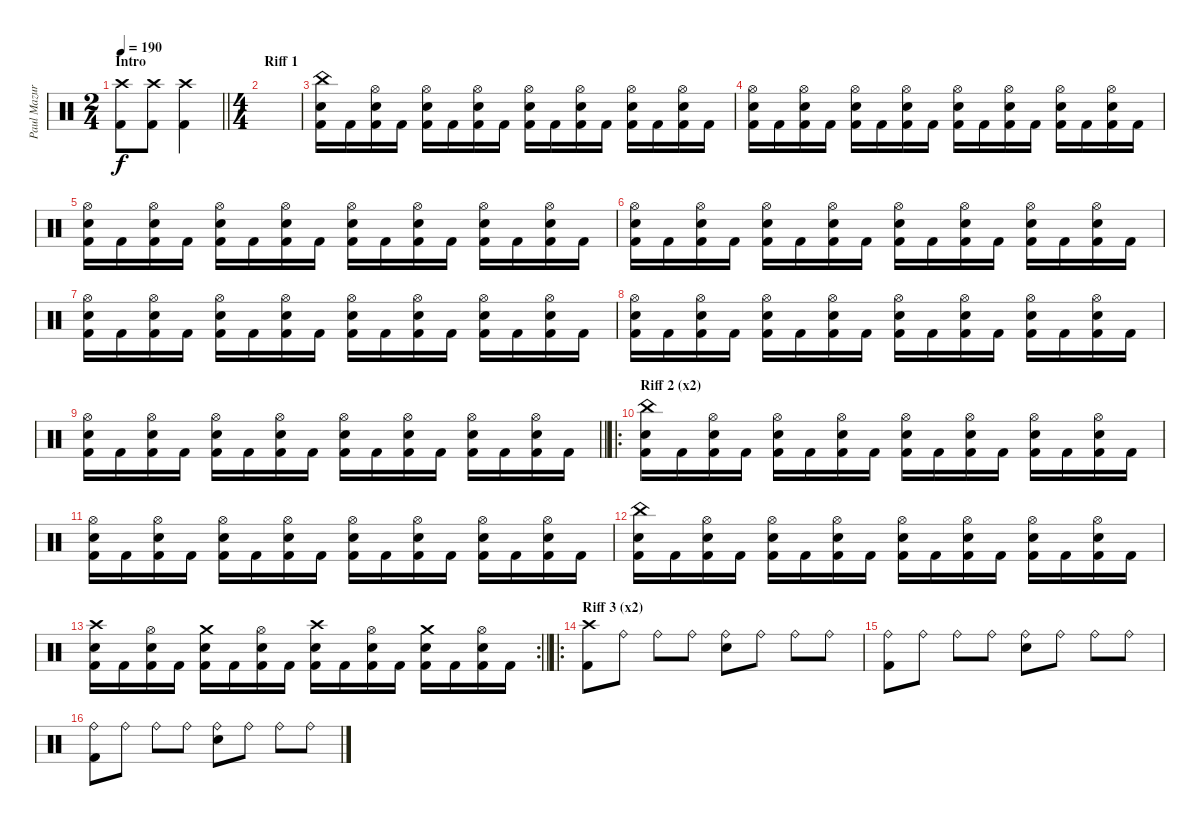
\track ("Paul Mazurkiewicz" "Paul Mazur") {instrument percussion}
\staff {score}
\articulation defaults
\ts (2 4)
\section ("" "Intro")
\tempo 190
\clef neutral
\barLineRight lightlight
\ks c
("Crash high (hit)" "Kick (hit) 2").8{dy f} ("Crash high (hit)" "Kick (hit) 2").8 ("Crash high (hit)" "Kick (hit) 2").4 |
\ts (4 4)
\section ("" "Riff 1")
|
("China (hit)" "Electric Snare (hit)" "Kick (hit) 2").16 "Kick (hit) 2".16 ("Hi-Hat (open)" "Electric Snare (hit)" "Kick (hit) 2").16 "Kick (hit) 2".16 ("Hi-Hat (open)" "Electric Snare (hit)" "Kick (hit) 2").16 "Kick (hit) 2".16 ("Hi-Hat (open)" "Electric Snare (hit)" "Kick (hit) 2").16 "Kick (hit) 2".16 ("Hi-Hat (open)" "Electric Snare (hit)" "Kick (hit) 2").16 "Kick (hit) 2".16 ("Hi-Hat (open)" "Electric Snare (hit)" "Kick (hit) 2").16 "Kick (hit) 2".16 ("Hi-Hat (open)" "Electric Snare (hit)" "Kick (hit) 2").16 "Kick (hit) 2".16 ("Hi-Hat (open)" "Electric Snare (hit)" "Kick (hit) 2").16 "Kick (hit) 2".16 |
("Hi-Hat (open)" "Electric Snare (hit)" "Kick (hit) 2").16 "Kick (hit) 2".16 ("Hi-Hat (open)" "Electric Snare (hit)" "Kick (hit) 2").16 "Kick (hit) 2".16 ("Hi-Hat (open)" "Electric Snare (hit)" "Kick (hit) 2").16 "Kick (hit) 2".16 ("Hi-Hat (open)" "Electric Snare (hit)" "Kick (hit) 2").16 "Kick (hit) 2".16 ("Hi-Hat (open)" "Electric Snare (hit)" "Kick (hit) 2").16 "Kick (hit) 2".16 ("Hi-Hat (open)" "Electric Snare (hit)" "Kick (hit) 2").16 "Kick (hit) 2".16 ("Hi-Hat (open)" "Electric Snare (hit)" "Kick (hit) 2").16 "Kick (hit) 2".16 ("Hi-Hat (open)" "Electric Snare (hit)" "Kick (hit) 2").16 "Kick (hit) 2".16 |
("Hi-Hat (open)" "Electric Snare (hit)" "Kick (hit) 2").16 "Kick (hit) 2".16 ("Hi-Hat (open)" "Electric Snare (hit)" "Kick (hit) 2").16 "Kick (hit) 2".16 ("Hi-Hat (open)" "Electric Snare (hit)" "Kick (hit) 2").16 "Kick (hit) 2".16 ("Hi-Hat (open)" "Electric Snare (hit)" "Kick (hit) 2").16 "Kick (hit) 2".16 ("Hi-Hat (open)" "Electric Snare (hit)" "Kick (hit) 2").16 "Kick (hit) 2".16 ("Hi-Hat (open)" "Electric Snare (hit)" "Kick (hit) 2").16 "Kick (hit) 2".16 ("Hi-Hat (open)" "Electric Snare (hit)" "Kick (hit) 2").16 "Kick (hit) 2".16 ("Hi-Hat (open)" "Electric Snare (hit)" "Kick (hit) 2").16 "Kick (hit) 2".16 |
("Hi-Hat (open)" "Electric Snare (hit)" "Kick (hit) 2").16 "Kick (hit) 2".16 ("Hi-Hat (open)" "Electric Snare (hit)" "Kick (hit) 2").16 "Kick (hit) 2".16 ("Hi-Hat (open)" "Electric Snare (hit)" "Kick (hit) 2").16 "Kick (hit) 2".16 ("Hi-Hat (open)" "Electric Snare (hit)" "Kick (hit) 2").16 "Kick (hit) 2".16 ("Hi-Hat (open)" "Electric Snare (hit)" "Kick (hit) 2").16 "Kick (hit) 2".16 ("Hi-Hat (open)" "Electric Snare (hit)" "Kick (hit) 2").16 "Kick (hit) 2".16 ("Hi-Hat (open)" "Electric Snare (hit)" "Kick (hit) 2").16 "Kick (hit) 2".16 ("Hi-Hat (open)" "Electric Snare (hit)" "Kick (hit) 2").16 "Kick (hit) 2".16 |
("Hi-Hat (open)" "Electric Snare (hit)" "Kick (hit) 2").16 "Kick (hit) 2".16 ("Hi-Hat (open)" "Electric Snare (hit)" "Kick (hit) 2").16 "Kick (hit) 2".16 ("Hi-Hat (open)" "Electric Snare (hit)" "Kick (hit) 2").16 "Kick (hit) 2".16 ("Hi-Hat (open)" "Electric Snare (hit)" "Kick (hit) 2").16 "Kick (hit) 2".16 ("Hi-Hat (open)" "Electric Snare (hit)" "Kick (hit) 2").16 "Kick (hit) 2".16 ("Hi-Hat (open)" "Electric Snare (hit)" "Kick (hit) 2").16 "Kick (hit) 2".16 ("Hi-Hat (open)" "Electric Snare (hit)" "Kick (hit) 2").16 "Kick (hit) 2".16 ("Hi-Hat (open)" "Electric Snare (hit)" "Kick (hit) 2").16 "Kick (hit) 2".16 |
("Hi-Hat (open)" "Electric Snare (hit)" "Kick (hit) 2").16 "Kick (hit) 2".16 ("Hi-Hat (open)" "Electric Snare (hit)" "Kick (hit) 2").16 "Kick (hit) 2".16 ("Hi-Hat (open)" "Electric Snare (hit)" "Kick (hit) 2").16 "Kick (hit) 2".16 ("Hi-Hat (open)" "Electric Snare (hit)" "Kick (hit) 2").16 "Kick (hit) 2".16 ("Hi-Hat (open)" "Electric Snare (hit)" "Kick (hit) 2").16 "Kick (hit) 2".16 ("Hi-Hat (open)" "Electric Snare (hit)" "Kick (hit) 2").16 "Kick (hit) 2".16 ("Hi-Hat (open)" "Electric Snare (hit)" "Kick (hit) 2").16 "Kick (hit) 2".16 ("Hi-Hat (open)" "Electric Snare (hit)" "Kick (hit) 2").16 "Kick (hit) 2".16 |
\barLineRight lightlight
("Hi-Hat (open)" "Electric Snare (hit)" "Kick (hit) 2").16 "Kick (hit) 2".16 ("Hi-Hat (open)" "Electric Snare (hit)" "Kick (hit) 2").16 "Kick (hit) 2".16 ("Hi-Hat (open)" "Electric Snare (hit)" "Kick (hit) 2").16 "Kick (hit) 2".16 ("Hi-Hat (open)" "Electric Snare (hit)" "Kick (hit) 2").16 "Kick (hit) 2".16 ("Hi-Hat (open)" "Electric Snare (hit)" "Kick (hit) 2").16 "Kick (hit) 2".16 ("Hi-Hat (open)" "Electric Snare (hit)" "Kick (hit) 2").16 "Kick (hit) 2".16 ("Hi-Hat (open)" "Electric Snare (hit)" "Kick (hit) 2").16 "Kick (hit) 2".16 ("Hi-Hat (open)" "Electric Snare (hit)" "Kick (hit) 2").16 "Kick (hit) 2".16 |
\ro
\section ("" "Riff 2 (x2)")
("China (hit)" "Electric Snare (hit)" "Kick (hit) 2").16 "Kick (hit) 2".16 ("Hi-Hat (open)" "Electric Snare (hit)" "Kick (hit) 2").16 "Kick (hit) 2".16 ("Hi-Hat (open)" "Electric Snare (hit)" "Kick (hit) 2").16 "Kick (hit) 2".16 ("Hi-Hat (open)" "Electric Snare (hit)" "Kick (hit) 2").16 "Kick (hit) 2".16 ("Hi-Hat (open)" "Electric Snare (hit)" "Kick (hit) 2").16 "Kick (hit) 2".16 ("Hi-Hat (open)" "Electric Snare (hit)" "Kick (hit) 2").16 "Kick (hit) 2".16 ("Hi-Hat (open)" "Electric Snare (hit)" "Kick (hit) 2").16 "Kick (hit) 2".16 ("Hi-Hat (open)" "Electric Snare (hit)" "Kick (hit) 2").16 "Kick (hit) 2".16 |
("Hi-Hat (open)" "Electric Snare (hit)" "Kick (hit) 2").16 "Kick (hit) 2".16 ("Hi-Hat (open)" "Electric Snare (hit)" "Kick (hit) 2").16 "Kick (hit) 2".16 ("Hi-Hat (open)" "Electric Snare (hit)" "Kick (hit) 2").16 "Kick (hit) 2".16 ("Hi-Hat (open)" "Electric Snare (hit)" "Kick (hit) 2").16 "Kick (hit) 2".16 ("Hi-Hat (open)" "Electric Snare (hit)" "Kick (hit) 2").16 "Kick (hit) 2".16 ("Hi-Hat (open)" "Electric Snare (hit)" "Kick (hit) 2").16 "Kick (hit) 2".16 ("Hi-Hat (open)" "Electric Snare (hit)" "Kick (hit) 2").16 "Kick (hit) 2".16 ("Hi-Hat (open)" "Electric Snare (hit)" "Kick (hit) 2").16 "Kick (hit) 2".16 |
("China (hit)" "Electric Snare (hit)" "Kick (hit) 2").16 "Kick (hit) 2".16 ("Hi-Hat (open)" "Electric Snare (hit)" "Kick (hit) 2").16 "Kick (hit) 2".16 ("Hi-Hat (open)" "Electric Snare (hit)" "Kick (hit) 2").16 "Kick (hit) 2".16 ("Hi-Hat (open)" "Electric Snare (hit)" "Kick (hit) 2").16 "Kick (hit) 2".16 ("Hi-Hat (open)" "Electric Snare (hit)" "Kick (hit) 2").16 "Kick (hit) 2".16 ("Hi-Hat (open)" "Electric Snare (hit)" "Kick (hit) 2").16 "Kick (hit) 2".16 ("Hi-Hat (open)" "Electric Snare (hit)" "Kick (hit) 2").16 "Kick (hit) 2".16 ("Hi-Hat (open)" "Electric Snare (hit)" "Kick (hit) 2").16 "Kick (hit) 2".16 |
\rc 2
\barLineRight lightlight
("Crash high (hit)" "Electric Snare (hit)" "Kick (hit) 2").16 "Kick (hit) 2".16 ("Hi-Hat (open)" "Electric Snare (hit)" "Kick (hit) 2").16 "Kick (hit) 2".16 ("Crash medium (hit)" "Electric Snare (hit)" "Kick (hit) 2").16 "Kick (hit) 2".16 ("Hi-Hat (open)" "Electric Snare (hit)" "Kick (hit) 2").16 "Kick (hit) 2".16 ("Crash high (hit)" "Electric Snare (hit)" "Kick (hit) 2").16 "Kick (hit) 2".16 ("Hi-Hat (open)" "Electric Snare (hit)" "Kick (hit) 2").16 "Kick (hit) 2".16 ("Crash medium (hit)" "Electric Snare (hit)" "Kick (hit) 2").16 "Kick (hit) 2".16 ("Hi-Hat (open)" "Electric Snare (hit)" "Kick (hit) 2").16 "Kick (hit) 2".16 |
\ro
\section ("" "Riff 3 (x2)")
("Crash high (hit)" "Kick (hit) 2").8 "Ride (bell)".8 "Ride (bell)".8 "Ride (bell)".8 ("Ride (bell)" "Electric Snare (hit)").8 "Ride (bell)".8 "Ride (bell)".8 "Ride (bell)".8 |
("Ride (bell)" "Kick (hit) 2").8 "Ride (bell)".8 "Ride (bell)".8 "Ride (bell)".8 ("Ride (bell)" "Electric Snare (hit)").8 "Ride (bell)".8 "Ride (bell)".8 "Ride (bell)".8 |
("Ride (bell)" "Kick (hit) 2").8 "Ride (bell)".8 "Ride (bell)".8 "Ride (bell)".8 ("Ride (bell)" "Electric Snare (hit)").8 "Ride (bell)".8 "Ride (bell)".8 "Ride (bell)".8
